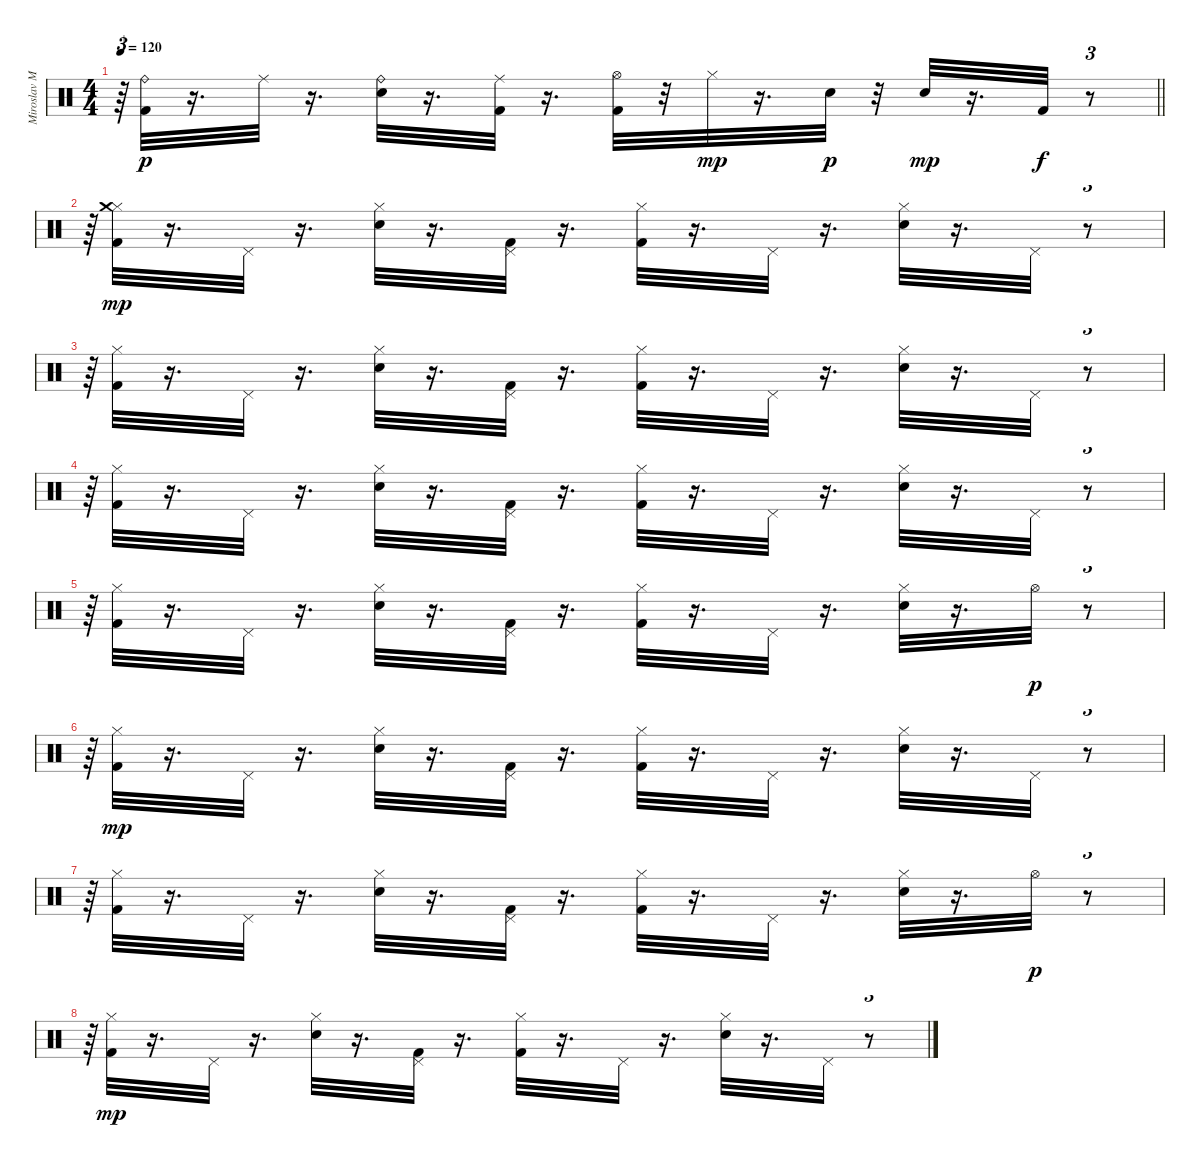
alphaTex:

\track ("Miroslav Milatovic-Vicko-bubnjevi" "Miroslav M") {instrument percussion}
\staff {score}
\articulation defaults
\ts (4 4)
\tempo 120
\clef neutral
\barLineRight lightlight
\ks c
r.64{tu (3 2) dy p} ("Kick (hit) 2" "Ride (bell)").32 r.16{d} "Ride (middle)".32 r.16{d} ("Electric Snare (hit)" "Ride (bell)").32 r.16{d} ("Kick (hit) 2" "Ride (middle)").32 r.16{d} ("Hi-Hat (open)" "Kick (hit) 2").32 r.32 "Hi-Hat (closed)".32{dy mp} r.16{d} "Electric Snare (hit)".32{dy p} r.32 "Electric Snare (hit)".32{dy mp} r.16{d} "Kick (hit) 2".32{dy f} r.8{tu (3 2)} |
r.64{tu (3 2)} ("Hi-Hat (closed)" "Kick (hit) 2" "Crash medium (hit)").32{dy mp} r.16{d} "Pedal Hi-Hat (hit)".32 r.16{d} ("Hi-Hat (closed)" "Electric Snare (hit)").32 r.16{d} ("Pedal Hi-Hat (hit)" "Kick (hit) 2").32 r.16{d} ("Hi-Hat (closed)" "Kick (hit) 2").32 r.16{d} "Pedal Hi-Hat (hit)".32 r.16{d} ("Hi-Hat (closed)" "Electric Snare (hit)").32 r.16{d} "Pedal Hi-Hat (hit)".32 r.8{tu (3 2)} |
r.64{tu (3 2)} ("Kick (hit) 2" "Hi-Hat (closed)").32 r.16{d} "Pedal Hi-Hat (hit)".32 r.16{d} ("Electric Snare (hit)" "Hi-Hat (closed)").32 r.16{d} ("Kick (hit) 2" "Pedal Hi-Hat (hit)").32 r.16{d} ("Kick (hit) 2" "Hi-Hat (closed)").32 r.16{d} "Pedal Hi-Hat (hit)".32 r.16{d} ("Electric Snare (hit)" "Hi-Hat (closed)").32 r.16{d} "Pedal Hi-Hat (hit)".32 r.8{tu (3 2)} |
r.64{tu (3 2)} ("Kick (hit) 2" "Hi-Hat (closed)").32 r.16{d} "Pedal Hi-Hat (hit)".32 r.16{d} ("Electric Snare (hit)" "Hi-Hat (closed)").32 r.16{d} ("Kick (hit) 2" "Pedal Hi-Hat (hit)").32 r.16{d} ("Kick (hit) 2" "Hi-Hat (closed)").32 r.16{d} "Pedal Hi-Hat (hit)".32 r.16{d} ("Electric Snare (hit)" "Hi-Hat (closed)").32 r.16{d} "Pedal Hi-Hat (hit)".32 r.8{tu (3 2)} |
r.64{tu (3 2)} ("Hi-Hat (closed)" "Kick (hit) 2").32 r.16{d} "Pedal Hi-Hat (hit)".32 r.16{d} ("Hi-Hat (closed)" "Electric Snare (hit)").32 r.16{d} ("Pedal Hi-Hat (hit)" "Kick (hit) 2").32 r.16{d} ("Hi-Hat (closed)" "Kick (hit) 2").32 r.16{d} "Pedal Hi-Hat (hit)".32 r.16{d} ("Hi-Hat (closed)" "Electric Snare (hit)").32 r.16{d} "Hi-Hat (open)".32{dy p} r.8{tu (3 2)} |
r.64{tu (3 2)} ("Kick (hit) 2" "Hi-Hat (closed)").32{dy mp} r.16{d} "Pedal Hi-Hat (hit)".32 r.16{d} ("Electric Snare (hit)" "Hi-Hat (closed)").32 r.16{d} ("Kick (hit) 2" "Pedal Hi-Hat (hit)").32 r.16{d} ("Kick (hit) 2" "Hi-Hat (closed)").32 r.16{d} "Pedal Hi-Hat (hit)".32 r.16{d} ("Electric Snare (hit)" "Hi-Hat (closed)").32 r.16{d} "Pedal Hi-Hat (hit)".32 r.8{tu (3 2)} |
r.64{tu (3 2)} ("Hi-Hat (closed)" "Kick (hit) 2").32 r.16{d} "Pedal Hi-Hat (hit)".32 r.16{d} ("Hi-Hat (closed)" "Electric Snare (hit)").32 r.16{d} ("Pedal Hi-Hat (hit)" "Kick (hit) 2").32 r.16{d} ("Hi-Hat (closed)" "Kick (hit) 2").32 r.16{d} "Pedal Hi-Hat (hit)".32 r.16{d} ("Hi-Hat (closed)" "Electric Snare (hit)").32 r.16{d} "Hi-Hat (open)".32{dy p} r.8{tu (3 2)} |
r.64{tu (3 2)} ("Hi-Hat (closed)" "Kick (hit) 2").32{dy mp} r.16{d} "Pedal Hi-Hat (hit)".32 r.16{d} ("Hi-Hat (closed)" "Electric Snare (hit)").32 r.16{d} ("Pedal Hi-Hat (hit)" "Kick (hit) 2").32 r.16{d} ("Hi-Hat (closed)" "Kick (hit) 2").32 r.16{d} "Pedal Hi-Hat (hit)".32 r.16{d} ("Hi-Hat (closed)" "Electric Snare (hit)").32 r.16{d} "Pedal Hi-Hat (hit)".32 r.8{tu (3 2)}
